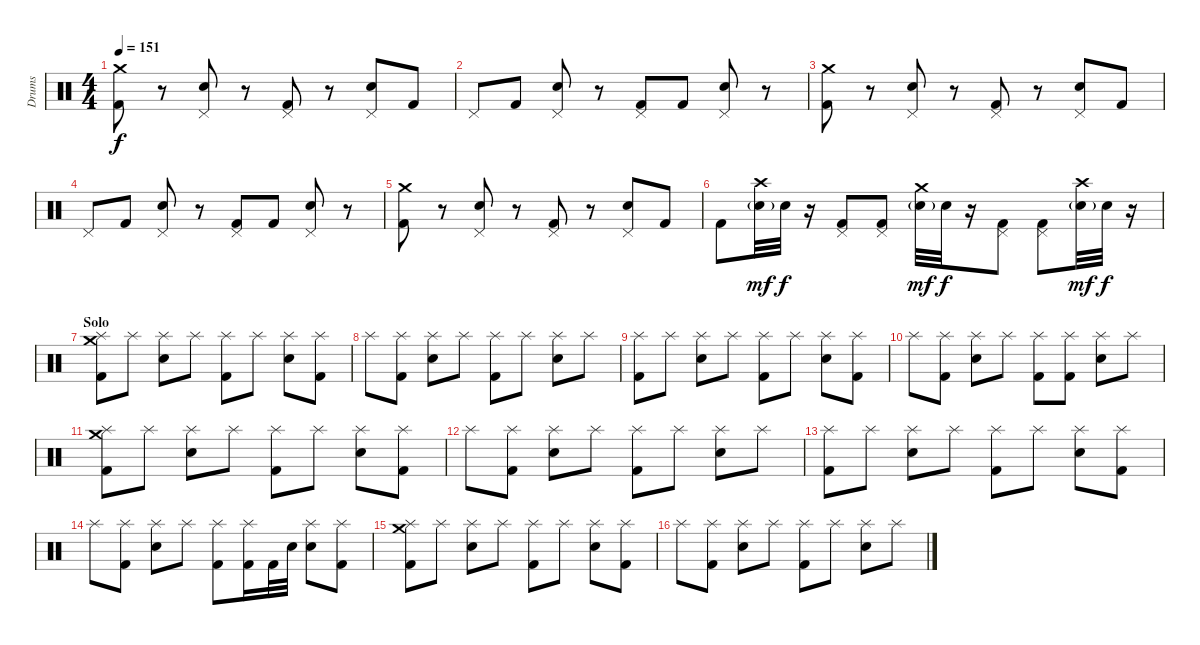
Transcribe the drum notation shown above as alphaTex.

\track ("Drums" "Drums") {instrument percussion}
\staff {score}
\articulation defaults
\ts (4 4)
\tempo 151
\clef neutral
\ks c
("Kick (hit) 2" "Crash medium (hit)").8{dy f} r.8 ("Pedal Hi-Hat (hit)" "Electric Snare (hit)").8 r.8 ("Pedal Hi-Hat (hit)" "Kick (hit) 2").8 r.8 ("Pedal Hi-Hat (hit)" "Electric Snare (hit)").8 "Kick (hit) 2".8 |
"Pedal Hi-Hat (hit)".8 "Kick (hit) 2".8 ("Pedal Hi-Hat (hit)" "Electric Snare (hit)").8 r.8 ("Pedal Hi-Hat (hit)" "Kick (hit) 2").8 "Kick (hit) 2".8 ("Pedal Hi-Hat (hit)" "Electric Snare (hit)").8 r.8 |
("Kick (hit) 2" "Crash medium (hit)").8 r.8 ("Pedal Hi-Hat (hit)" "Electric Snare (hit)").8 r.8 ("Pedal Hi-Hat (hit)" "Kick (hit) 2").8 r.8 ("Pedal Hi-Hat (hit)" "Electric Snare (hit)").8 "Kick (hit) 2".8 |
"Pedal Hi-Hat (hit)".8 "Kick (hit) 2".8 ("Pedal Hi-Hat (hit)" "Electric Snare (hit)").8 r.8 ("Pedal Hi-Hat (hit)" "Kick (hit) 2").8 "Kick (hit) 2".8 ("Pedal Hi-Hat (hit)" "Electric Snare (hit)").8 r.8 |
("Kick (hit) 2" "Crash medium (hit)").8 r.8 ("Pedal Hi-Hat (hit)" "Electric Snare (hit)").8 r.8 ("Pedal Hi-Hat (hit)" "Kick (hit) 2").8 r.8 ("Pedal Hi-Hat (hit)" "Electric Snare (hit)").8 "Kick (hit) 2".8 |
"Kick (hit) 2".8{volume 16} ("Snare (hit) 2"{g} "Crash high (hit)").32{dy mf} "Snare (hit) 2".32{dy f} r.16 ("Kick (hit) 2" "Pedal Hi-Hat (hit)").8 ("Kick (hit) 2" "Pedal Hi-Hat (hit)").8 ("Snare (hit) 2"{g} "Crash medium (hit)").32{dy mf} "Snare (hit) 2".32{dy f} r.16 ("Kick (hit) 2" "Pedal Hi-Hat (hit)").8 ("Kick (hit) 2" "Pedal Hi-Hat (hit)").8 ("Snare (hit) 2"{g} "Crash high (hit)").32{dy mf} "Snare (hit) 2".32{dy f} r.16 |
\section ("" "Solo")
("Kick (hit) 2" "Splash (hit)" "Crash medium (hit)").8 "Splash (hit)".8 ("Splash (hit)" "Electric Snare (hit)").8 "Splash (hit)".8 ("Kick (hit) 2" "Splash (hit)").8 "Splash (hit)".8 ("Splash (hit)" "Electric Snare (hit)").8 ("Kick (hit) 2" "Splash (hit)").8 |
"Splash (hit)".8 ("Kick (hit) 2" "Splash (hit)").8 ("Splash (hit)" "Electric Snare (hit)").8 "Splash (hit)".8 ("Kick (hit) 2" "Splash (hit)").8 "Splash (hit)".8 ("Splash (hit)" "Electric Snare (hit)").8 "Splash (hit)".8 |
("Kick (hit) 2" "Splash (hit)").8 "Splash (hit)".8 ("Splash (hit)" "Electric Snare (hit)").8 "Splash (hit)".8 ("Kick (hit) 2" "Splash (hit)").8 "Splash (hit)".8 ("Splash (hit)" "Electric Snare (hit)").8 ("Kick (hit) 2" "Splash (hit)").8 |
"Splash (hit)".8 ("Kick (hit) 2" "Splash (hit)").8 ("Splash (hit)" "Electric Snare (hit)").8 "Splash (hit)".8 ("Kick (hit) 2" "Splash (hit)").8 ("Kick (hit) 2" "Splash (hit)").8 ("Splash (hit)" "Electric Snare (hit)").8 "Splash (hit)".8 |
("Kick (hit) 2" "Splash (hit)" "Crash medium (hit)").8 "Splash (hit)".8 ("Splash (hit)" "Electric Snare (hit)").8 "Splash (hit)".8 ("Kick (hit) 2" "Splash (hit)").8 "Splash (hit)".8 ("Splash (hit)" "Electric Snare (hit)").8 ("Kick (hit) 2" "Splash (hit)").8 |
"Splash (hit)".8 ("Kick (hit) 2" "Splash (hit)").8 ("Splash (hit)" "Electric Snare (hit)").8 "Splash (hit)".8 ("Kick (hit) 2" "Splash (hit)").8 "Splash (hit)".8 ("Splash (hit)" "Electric Snare (hit)").8 "Splash (hit)".8 |
("Kick (hit) 2" "Splash (hit)").8 "Splash (hit)".8 ("Splash (hit)" "Electric Snare (hit)").8 "Splash (hit)".8 ("Kick (hit) 2" "Splash (hit)").8 "Splash (hit)".8 ("Splash (hit)" "Electric Snare (hit)").8 ("Kick (hit) 2" "Splash (hit)").8 |
"Splash (hit)".8 ("Kick (hit) 2" "Splash (hit)").8 ("Splash (hit)" "Electric Snare (hit)").8 "Splash (hit)".8 ("Kick (hit) 2" "Splash (hit)").8 ("Kick (hit) 2" "Splash (hit)").16 "Kick (hit) 2".32 "Electric Snare (hit)".32 ("Splash (hit)" "Electric Snare (hit)").8 ("Splash (hit)" "Kick (hit) 2").8 |
("Kick (hit) 2" "Splash (hit)" "Crash medium (hit)").8 "Splash (hit)".8 ("Splash (hit)" "Electric Snare (hit)").8 "Splash (hit)".8 ("Kick (hit) 2" "Splash (hit)").8 "Splash (hit)".8 ("Splash (hit)" "Electric Snare (hit)").8 ("Kick (hit) 2" "Splash (hit)").8 |
"Splash (hit)".8 ("Kick (hit) 2" "Splash (hit)").8 ("Splash (hit)" "Electric Snare (hit)").8 "Splash (hit)".8 ("Kick (hit) 2" "Splash (hit)").8 "Splash (hit)".8 ("Splash (hit)" "Electric Snare (hit)").8 "Splash (hit)".8
